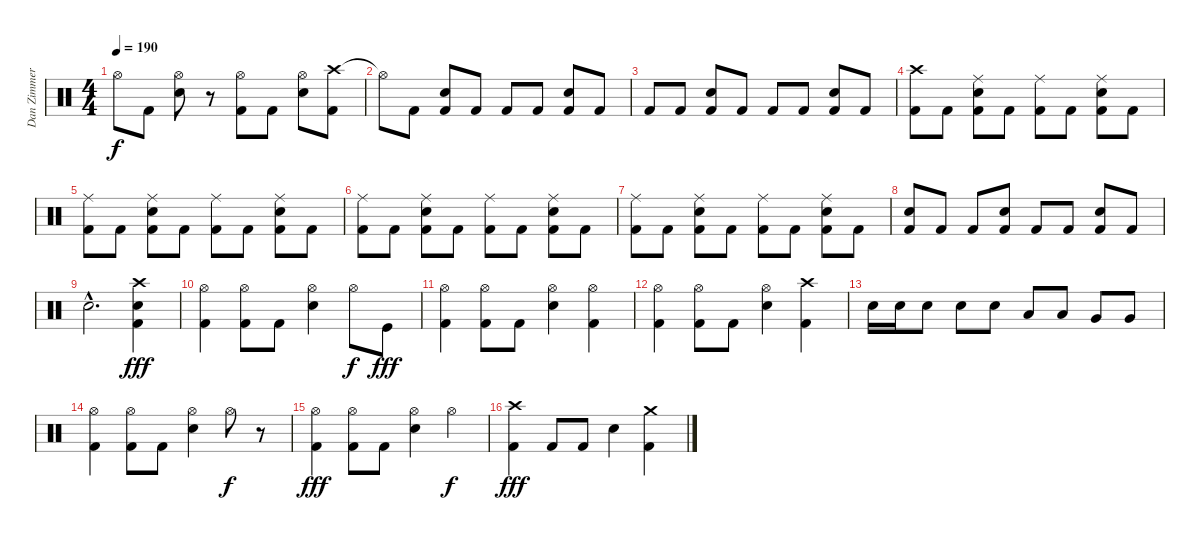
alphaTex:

\track ("Dan Zimmermann" "Dan Zimmer") {instrument percussion}
\staff {score}
\articulation defaults
\ts (4 4)
\tempo 190
\clef neutral
\ks c "Hi-Hat (open)".8{dy f} "Kick (hit) 2".8
("Hi-Hat (open)" "Electric Snare (hit)").8 r.8 ("Hi-Hat (open)" "Kick (hit) 2").8 "Kick (hit) 2".8 ("Hi-Hat (open)" "Electric Snare (hit)").8 ("Crash high (hit)" "Kick (hit) 2").8 |
"Hi-Hat (open)"{t}.8 "Kick (hit) 2".8 ("Electric Snare (hit)" "Kick (hit) 2").8 "Kick (hit) 2".8 "Kick (hit) 2".8 "Kick (hit) 2".8 ("Electric Snare (hit)" "Kick (hit) 2").8 "Kick (hit) 2".8 |
"Kick (hit) 2".8 "Kick (hit) 2".8 ("Electric Snare (hit)" "Kick (hit) 2").8 "Kick (hit) 2".8 "Kick (hit) 2".8 "Kick (hit) 2".8 ("Electric Snare (hit)" "Kick (hit) 2").8 "Kick (hit) 2".8 |
("Crash high (hit)" "Kick (hit) 2").8 "Kick (hit) 2".8 ("Ride (middle)" "Electric Snare (hit)" "Kick (hit) 2").8 "Kick (hit) 2".8 ("Ride (middle)" "Kick (hit) 2").8 "Kick (hit) 2".8 ("Ride (middle)" "Electric Snare (hit)" "Kick (hit) 2").8 "Kick (hit) 2".8 |
("Ride (middle)" "Kick (hit) 2").8 "Kick (hit) 2".8 ("Ride (middle)" "Electric Snare (hit)" "Kick (hit) 2").8 "Kick (hit) 2".8 ("Ride (middle)" "Kick (hit) 2").8 "Kick (hit) 2".8 ("Ride (middle)" "Electric Snare (hit)" "Kick (hit) 2").8 "Kick (hit) 2".8 |
("Ride (middle)" "Kick (hit) 2").8 "Kick (hit) 2".8 ("Ride (middle)" "Electric Snare (hit)" "Kick (hit) 2").8 "Kick (hit) 2".8 ("Ride (middle)" "Kick (hit) 2").8 "Kick (hit) 2".8 ("Ride (middle)" "Electric Snare (hit)" "Kick (hit) 2").8 "Kick (hit) 2".8 |
("Ride (middle)" "Kick (hit) 2").8 "Kick (hit) 2".8 ("Ride (middle)" "Electric Snare (hit)" "Kick (hit) 2").8 "Kick (hit) 2".8 ("Ride (middle)" "Kick (hit) 2").8 "Kick (hit) 2".8 ("Ride (middle)" "Electric Snare (hit)" "Kick (hit) 2").8 "Kick (hit) 2".8 |
("Electric Snare (hit)" "Kick (hit) 2").8 "Kick (hit) 2".8 "Kick (hit) 2".8 ("Electric Snare (hit)" "Kick (hit) 2").8 "Kick (hit) 2".8 "Kick (hit) 2".8 ("Electric Snare (hit)" "Kick (hit) 2").8 "Kick (hit) 2".8 |
"Electric Snare (hit)"{hac}.2{d} ("Crash high (hit)" "Electric Snare (hit)" "Kick (hit) 2").4{dy fff} |
("Hi-Hat (open)" "Kick (hit) 2").4 ("Hi-Hat (open)" "Kick (hit) 2").8 "Kick (hit) 2".8 ("Hi-Hat (open)" "Electric Snare (hit)").4 "Hi-Hat (open)".8{dy f} "Kick (hit)".8{dy fff} |
("Hi-Hat (open)" "Kick (hit) 2").4 ("Hi-Hat (open)" "Kick (hit) 2").8 "Kick (hit) 2".8 ("Hi-Hat (open)" "Electric Snare (hit)").4 ("Hi-Hat (open)" "Kick (hit) 2").4 |
("Hi-Hat (open)" "Kick (hit) 2").4 ("Hi-Hat (open)" "Kick (hit) 2").8 "Kick (hit) 2".8 ("Hi-Hat (open)" "Electric Snare (hit)").4 ("Crash high (hit)" "Kick (hit) 2").4 |
"Electric Snare (hit)".16 "Electric Snare (hit)".16 "Electric Snare (hit)".8 "Electric Snare (hit)".8 "Electric Snare (hit)".8 "Low Tom (hit)".8 "Low Tom (hit)".8 "Very Low Tom (hit)".8 "Very Low Tom (hit)".8 |
("Hi-Hat (open)" "Kick (hit) 2").4 ("Hi-Hat (open)" "Kick (hit) 2").8 "Kick (hit) 2".8 ("Hi-Hat (open)" "Electric Snare (hit)").4 "Hi-Hat (open)".8{dy f} r.8 |
("Hi-Hat (open)" "Kick (hit) 2").4{dy fff} ("Hi-Hat (open)" "Kick (hit) 2").8 "Kick (hit) 2".8 ("Hi-Hat (open)" "Electric Snare (hit)").4 "Hi-Hat (open)".4{dy f} |
("Crash high (hit)" "Kick (hit) 2").4{dy fff} "Kick (hit) 2".8 "Kick (hit) 2".8 "Electric Snare (hit)".4 ("Crash medium (hit)" "Kick (hit) 2").4
